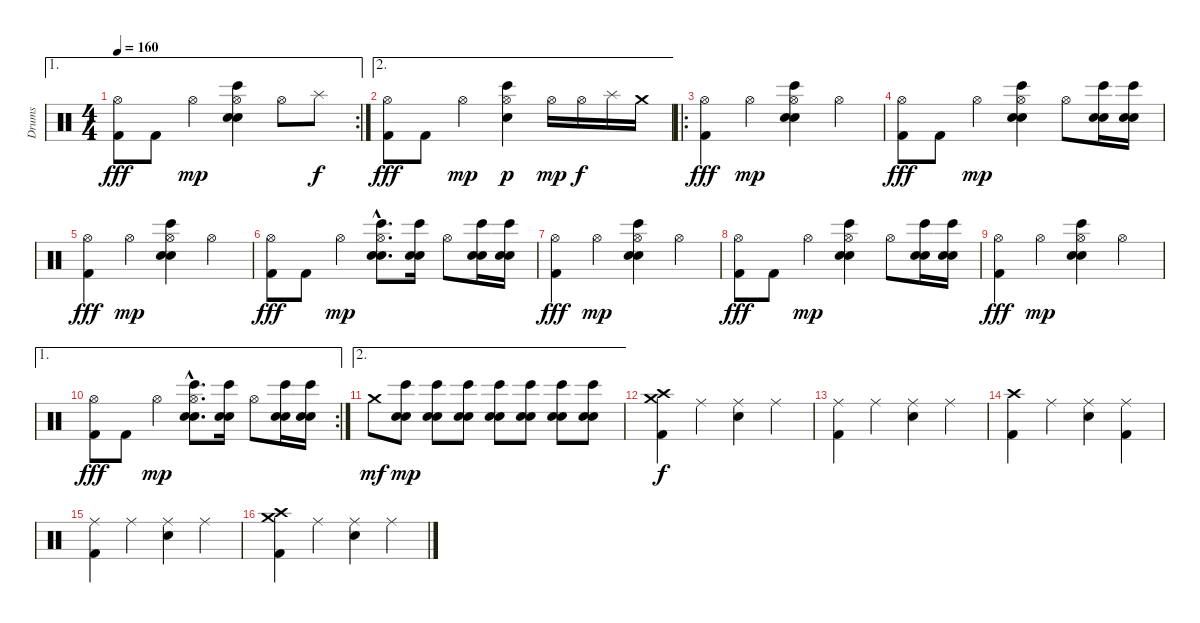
\track ("Drums" "Drums") {instrument percussion}
\staff {score}
\articulation defaults
\ae 1
\rc 2
\ts (4 4)
\tempo 160
\clef neutral
\ks c
("Hi-Hat (open)" "Kick (hit) 2").8{dy fff} "Kick (hit) 2".8 "Hi-Hat (open)".4{dy mp} ("Hi-Hat (open)" "Bongo High (hit)" "Snare (hit) 2" "Electric Snare (hit)").4 "Hi-Hat (open)".8 "Splash (hit)".8{dy f} |
\ae 2
("Hi-Hat (open)" "Kick (hit) 2").8{dy fff} "Kick (hit) 2".8 "Hi-Hat (open)".4{dy mp} ("Hi-Hat (open)" "Bongo High (hit)" "Snare (hit) 2").4{dy p} "Hi-Hat (open)".16{dy mp} "Hi-Hat (open)".16{dy f} "Splash (hit)".16 "Crash medium (hit)".16 |
\ro
("Hi-Hat (open)" "Kick (hit) 2").4{dy fff} "Hi-Hat (open)".4{dy mp} ("Hi-Hat (open)" "Bongo High (hit)" "Snare (hit) 2" "Electric Snare (hit)").4 "Hi-Hat (open)".4 |
("Hi-Hat (open)" "Kick (hit) 2").8{dy fff} "Kick (hit) 2".8 "Hi-Hat (open)".4{dy mp} ("Hi-Hat (open)" "Bongo High (hit)" "Snare (hit) 2" "Electric Snare (hit)").4 "Hi-Hat (open)".8 ("Bongo High (hit)" "Snare (hit) 2" "Electric Snare (hit)").16 ("Bongo High (hit)" "Snare (hit) 2" "Electric Snare (hit)").16 |
("Hi-Hat (open)" "Kick (hit) 2").4{dy fff} "Hi-Hat (open)".4{dy mp} ("Hi-Hat (open)" "Bongo High (hit)" "Snare (hit) 2" "Electric Snare (hit)").4 "Hi-Hat (open)".4 |
("Hi-Hat (open)" "Kick (hit) 2").8{dy fff} "Kick (hit) 2".8 "Hi-Hat (open)".4{dy mp} ("Hi-Hat (open)"{hac} "Bongo High (hit)"{hac} "Snare (hit) 2"{hac} "Electric Snare (hit)"{hac}).8{d} ("Bongo High (hit)" "Snare (hit) 2" "Electric Snare (hit)").16 "Hi-Hat (open)".8 ("Bongo High (hit)" "Snare (hit) 2" "Electric Snare (hit)").16 ("Bongo High (hit)" "Snare (hit) 2" "Electric Snare (hit)").16 |
("Hi-Hat (open)" "Kick (hit) 2").4{dy fff} "Hi-Hat (open)".4{dy mp} ("Hi-Hat (open)" "Bongo High (hit)" "Snare (hit) 2" "Electric Snare (hit)").4 "Hi-Hat (open)".4 |
("Hi-Hat (open)" "Kick (hit) 2").8{dy fff} "Kick (hit) 2".8 "Hi-Hat (open)".4{dy mp} ("Hi-Hat (open)" "Bongo High (hit)" "Snare (hit) 2" "Electric Snare (hit)").4 "Hi-Hat (open)".8 ("Bongo High (hit)" "Snare (hit) 2" "Electric Snare (hit)").16 ("Bongo High (hit)" "Snare (hit) 2" "Electric Snare (hit)").16 |
("Hi-Hat (open)" "Kick (hit) 2").4{dy fff} "Hi-Hat (open)".4{dy mp} ("Hi-Hat (open)" "Bongo High (hit)" "Snare (hit) 2" "Electric Snare (hit)").4 "Hi-Hat (open)".4 |
\ae 1
\rc 2
("Hi-Hat (open)" "Kick (hit) 2").8{dy fff} "Kick (hit) 2".8 "Hi-Hat (open)".4{dy mp} ("Hi-Hat (open)"{hac} "Bongo High (hit)"{hac} "Snare (hit) 2"{hac} "Electric Snare (hit)"{hac}).8{d} ("Bongo High (hit)" "Snare (hit) 2" "Electric Snare (hit)").16 "Hi-Hat (open)".8 ("Bongo High (hit)" "Snare (hit) 2" "Electric Snare (hit)").16 ("Bongo High (hit)" "Snare (hit) 2" "Electric Snare (hit)").16 |
\ae 2 "Crash medium (hit)".8{dy mf}
("Bongo High (hit)" "Snare (hit) 2" "Electric Snare (hit)").8{dy mp} ("Bongo High (hit)" "Snare (hit) 2" "Electric Snare (hit)").8 ("Bongo High (hit)" "Snare (hit) 2" "Electric Snare (hit)").8 ("Bongo High (hit)" "Snare (hit) 2" "Electric Snare (hit)").8 ("Bongo High (hit)" "Snare (hit) 2" "Electric Snare (hit)").8 ("Bongo High (hit)" "Snare (hit) 2" "Electric Snare (hit)").8 ("Bongo High (hit)" "Snare (hit) 2" "Electric Snare (hit)").8 |
("Crash high (hit)" "Crash medium (hit)" "Kick (hit) 2").4{dy f} "Ride (middle)".4 ("Ride (middle)" "Snare (hit) 2").4 "Ride (middle)".4 |
("Ride (middle)" "Kick (hit) 2").4 "Ride (middle)".4 ("Ride (middle)" "Snare (hit) 2").4 "Ride (middle)".4 |
("Crash high (hit)" "Kick (hit) 2").4 "Ride (middle)".4 ("Ride (middle)" "Snare (hit) 2").4 ("Ride (middle)" "Kick (hit) 2").4 |
("Ride (middle)" "Kick (hit) 2").4 "Ride (middle)".4 ("Ride (middle)" "Snare (hit) 2").4 "Ride (middle)".4 |
("Crash high (hit)" "Crash medium (hit)" "Kick (hit) 2").4 "Ride (middle)".4 ("Ride (middle)" "Snare (hit) 2").4 "Ride (middle)".4
